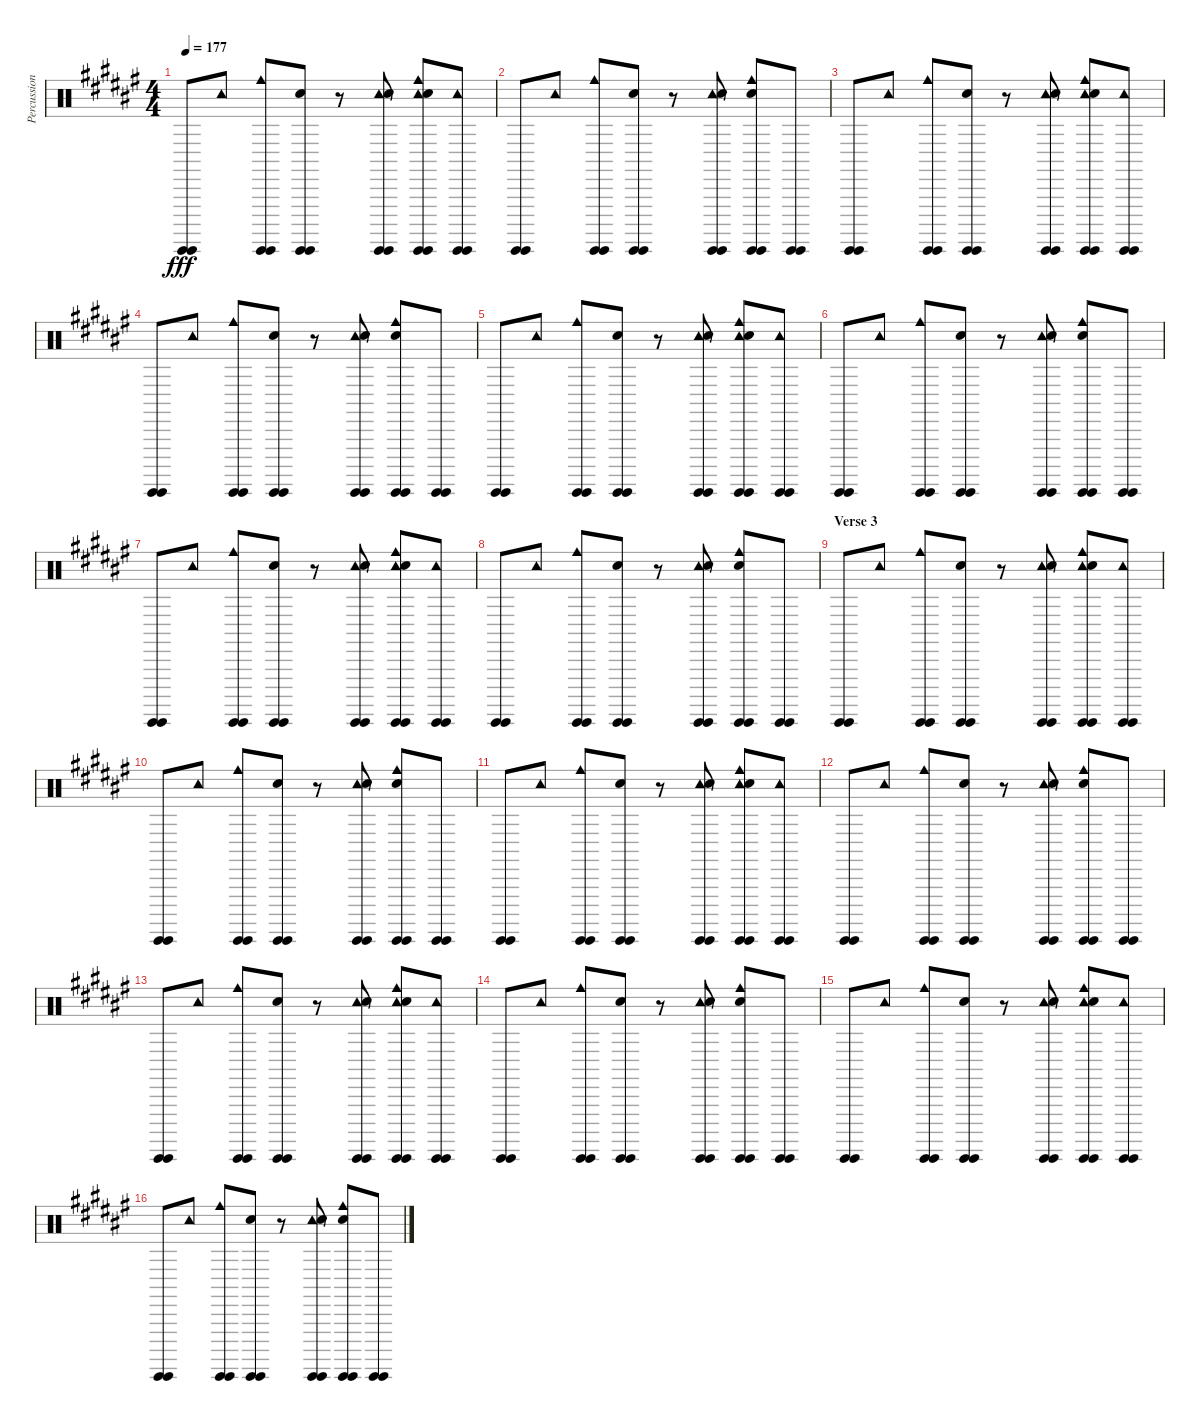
\track ("Percussion" "Percussion") {instrument percussion}
\staff {score}
\articulation defaults
\ts (4 4)
\tempo 177
\clef neutral
\ks d#minor
("Guiro (hit)" "Guiro (hit)").8{dy fff} "Tambourine (hit)".8 ("Cowbell medium (hit)" "Guiro (hit)" "Guiro (hit)").8 ("Guiro (hit)" "Guiro (hit)" "Hand Clap (hit)").8 r.8 ("Tambourine (hit)" "Guiro (hit)" "Guiro (hit)" "Hand Clap (hit)").8 ("Cowbell medium (hit)" "Tambourine (hit)" "Guiro (hit)" "Guiro (hit)" "Hand Clap (hit)").8 ("Tambourine (hit)" "Guiro (hit)" "Guiro (hit)").8 |
("Guiro (hit)" "Guiro (hit)").8 "Tambourine (hit)".8 ("Cowbell medium (hit)" "Guiro (hit)" "Guiro (hit)").8 ("Guiro (hit)" "Guiro (hit)" "Hand Clap (hit)").8 r.8 ("Tambourine (hit)" "Guiro (hit)" "Guiro (hit)" "Hand Clap (hit)").8 ("Cowbell medium (hit)" "Guiro (hit)" "Guiro (hit)" "Hand Clap (hit)").8 ("Guiro (hit)" "Guiro (hit)").8 |
("Guiro (hit)" "Guiro (hit)").8 "Tambourine (hit)".8 ("Cowbell medium (hit)" "Guiro (hit)" "Guiro (hit)").8 ("Guiro (hit)" "Guiro (hit)" "Hand Clap (hit)").8 r.8 ("Tambourine (hit)" "Guiro (hit)" "Guiro (hit)" "Hand Clap (hit)").8 ("Cowbell medium (hit)" "Tambourine (hit)" "Guiro (hit)" "Guiro (hit)" "Hand Clap (hit)").8 ("Tambourine (hit)" "Guiro (hit)" "Guiro (hit)").8 |
("Guiro (hit)" "Guiro (hit)").8 "Tambourine (hit)".8 ("Cowbell medium (hit)" "Guiro (hit)" "Guiro (hit)").8 ("Guiro (hit)" "Guiro (hit)" "Hand Clap (hit)").8 r.8 ("Tambourine (hit)" "Guiro (hit)" "Guiro (hit)" "Hand Clap (hit)").8 ("Cowbell medium (hit)" "Guiro (hit)" "Guiro (hit)" "Hand Clap (hit)").8 ("Guiro (hit)" "Guiro (hit)").8 |
("Guiro (hit)" "Guiro (hit)").8 "Tambourine (hit)".8 ("Cowbell medium (hit)" "Guiro (hit)" "Guiro (hit)").8 ("Guiro (hit)" "Guiro (hit)" "Hand Clap (hit)").8 r.8 ("Tambourine (hit)" "Guiro (hit)" "Guiro (hit)" "Hand Clap (hit)").8 ("Cowbell medium (hit)" "Tambourine (hit)" "Guiro (hit)" "Guiro (hit)" "Hand Clap (hit)").8 ("Tambourine (hit)" "Guiro (hit)" "Guiro (hit)").8 |
("Guiro (hit)" "Guiro (hit)").8 "Tambourine (hit)".8 ("Cowbell medium (hit)" "Guiro (hit)" "Guiro (hit)").8 ("Guiro (hit)" "Guiro (hit)" "Hand Clap (hit)").8 r.8 ("Tambourine (hit)" "Guiro (hit)" "Guiro (hit)" "Hand Clap (hit)").8 ("Cowbell medium (hit)" "Guiro (hit)" "Guiro (hit)" "Hand Clap (hit)").8 ("Guiro (hit)" "Guiro (hit)").8 |
("Guiro (hit)" "Guiro (hit)").8 "Tambourine (hit)".8 ("Cowbell medium (hit)" "Guiro (hit)" "Guiro (hit)").8 ("Guiro (hit)" "Guiro (hit)" "Hand Clap (hit)").8 r.8 ("Tambourine (hit)" "Guiro (hit)" "Guiro (hit)" "Hand Clap (hit)").8 ("Cowbell medium (hit)" "Tambourine (hit)" "Guiro (hit)" "Guiro (hit)" "Hand Clap (hit)").8 ("Tambourine (hit)" "Guiro (hit)" "Guiro (hit)").8 |
("Guiro (hit)" "Guiro (hit)").8 "Tambourine (hit)".8 ("Cowbell medium (hit)" "Guiro (hit)" "Guiro (hit)").8 ("Guiro (hit)" "Guiro (hit)" "Hand Clap (hit)").8 r.8 ("Tambourine (hit)" "Guiro (hit)" "Guiro (hit)" "Hand Clap (hit)").8 ("Cowbell medium (hit)" "Guiro (hit)" "Guiro (hit)" "Hand Clap (hit)").8 ("Guiro (hit)" "Guiro (hit)").8 |
\section ("" "Verse 3")
("Guiro (hit)" "Guiro (hit)").8 "Tambourine (hit)".8 ("Cowbell medium (hit)" "Guiro (hit)" "Guiro (hit)").8 ("Guiro (hit)" "Guiro (hit)" "Hand Clap (hit)").8 r.8 ("Tambourine (hit)" "Guiro (hit)" "Guiro (hit)" "Hand Clap (hit)").8 ("Cowbell medium (hit)" "Tambourine (hit)" "Guiro (hit)" "Guiro (hit)" "Hand Clap (hit)").8 ("Tambourine (hit)" "Guiro (hit)" "Guiro (hit)").8 |
("Guiro (hit)" "Guiro (hit)").8 "Tambourine (hit)".8 ("Cowbell medium (hit)" "Guiro (hit)" "Guiro (hit)").8 ("Guiro (hit)" "Guiro (hit)" "Hand Clap (hit)").8 r.8 ("Tambourine (hit)" "Guiro (hit)" "Guiro (hit)" "Hand Clap (hit)").8 ("Cowbell medium (hit)" "Guiro (hit)" "Guiro (hit)" "Hand Clap (hit)").8 ("Guiro (hit)" "Guiro (hit)").8 |
("Guiro (hit)" "Guiro (hit)").8 "Tambourine (hit)".8 ("Cowbell medium (hit)" "Guiro (hit)" "Guiro (hit)").8 ("Guiro (hit)" "Guiro (hit)" "Hand Clap (hit)").8 r.8 ("Tambourine (hit)" "Guiro (hit)" "Guiro (hit)" "Hand Clap (hit)").8 ("Cowbell medium (hit)" "Tambourine (hit)" "Guiro (hit)" "Guiro (hit)" "Hand Clap (hit)").8 ("Tambourine (hit)" "Guiro (hit)" "Guiro (hit)").8 |
("Guiro (hit)" "Guiro (hit)").8 "Tambourine (hit)".8 ("Cowbell medium (hit)" "Guiro (hit)" "Guiro (hit)").8 ("Guiro (hit)" "Guiro (hit)" "Hand Clap (hit)").8 r.8 ("Tambourine (hit)" "Guiro (hit)" "Guiro (hit)" "Hand Clap (hit)").8 ("Cowbell medium (hit)" "Guiro (hit)" "Guiro (hit)" "Hand Clap (hit)").8 ("Guiro (hit)" "Guiro (hit)").8 |
("Guiro (hit)" "Guiro (hit)").8 "Tambourine (hit)".8 ("Cowbell medium (hit)" "Guiro (hit)" "Guiro (hit)").8 ("Guiro (hit)" "Guiro (hit)" "Hand Clap (hit)").8 r.8 ("Tambourine (hit)" "Guiro (hit)" "Guiro (hit)" "Hand Clap (hit)").8 ("Cowbell medium (hit)" "Tambourine (hit)" "Guiro (hit)" "Guiro (hit)" "Hand Clap (hit)").8 ("Tambourine (hit)" "Guiro (hit)" "Guiro (hit)").8 |
("Guiro (hit)" "Guiro (hit)").8 "Tambourine (hit)".8 ("Cowbell medium (hit)" "Guiro (hit)" "Guiro (hit)").8 ("Guiro (hit)" "Guiro (hit)" "Hand Clap (hit)").8 r.8 ("Tambourine (hit)" "Guiro (hit)" "Guiro (hit)" "Hand Clap (hit)").8 ("Cowbell medium (hit)" "Guiro (hit)" "Guiro (hit)" "Hand Clap (hit)").8 ("Guiro (hit)" "Guiro (hit)").8 |
("Guiro (hit)" "Guiro (hit)").8 "Tambourine (hit)".8 ("Cowbell medium (hit)" "Guiro (hit)" "Guiro (hit)").8 ("Guiro (hit)" "Guiro (hit)" "Hand Clap (hit)").8 r.8 ("Tambourine (hit)" "Guiro (hit)" "Guiro (hit)" "Hand Clap (hit)").8 ("Cowbell medium (hit)" "Tambourine (hit)" "Guiro (hit)" "Guiro (hit)" "Hand Clap (hit)").8 ("Tambourine (hit)" "Guiro (hit)" "Guiro (hit)").8 |
("Guiro (hit)" "Guiro (hit)").8 "Tambourine (hit)".8 ("Cowbell medium (hit)" "Guiro (hit)" "Guiro (hit)").8 ("Guiro (hit)" "Guiro (hit)" "Hand Clap (hit)").8 r.8 ("Tambourine (hit)" "Guiro (hit)" "Guiro (hit)" "Hand Clap (hit)").8 ("Cowbell medium (hit)" "Guiro (hit)" "Guiro (hit)" "Hand Clap (hit)").8 ("Guiro (hit)" "Guiro (hit)").8
